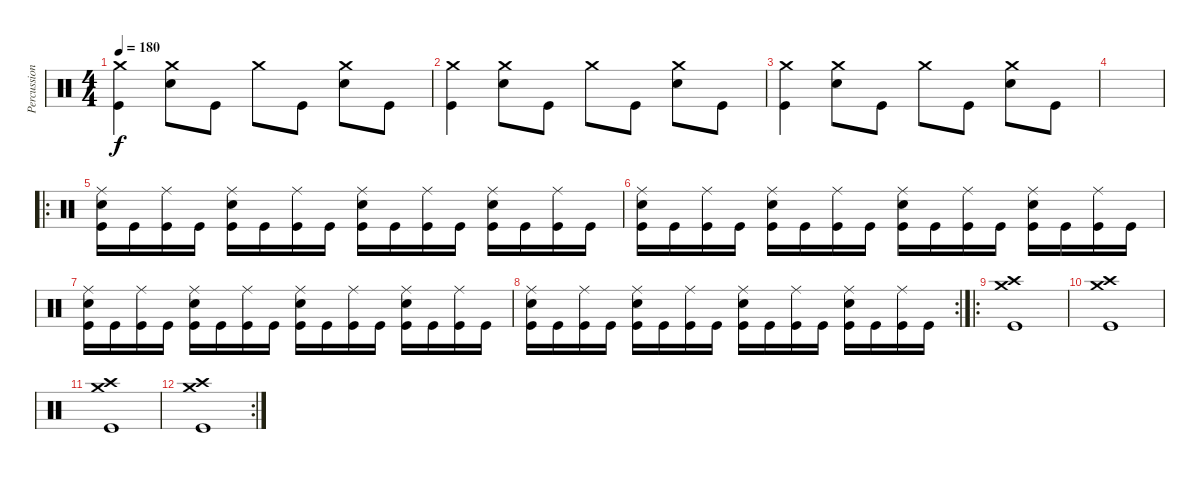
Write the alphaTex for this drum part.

\track ("Percussion" "Percussion") {instrument percussion}
\staff {score}
\articulation defaults
\ts (4 4)
\tempo 180
\clef neutral
\ks c
("Crash medium (hit)" "Kick (hit)").4{dy f} ("Crash medium (hit)" "Snare (hit) 2").8 "Kick (hit)".8 "Crash medium (hit)".8 "Kick (hit)".8 ("Crash medium (hit)" "Snare (hit) 2").8 "Kick (hit)".8 |
("Crash medium (hit)" "Kick (hit)").4 ("Crash medium (hit)" "Snare (hit) 2").8 "Kick (hit)".8 "Crash medium (hit)".8 "Kick (hit)".8 ("Crash medium (hit)" "Snare (hit) 2").8 "Kick (hit)".8 |
("Crash medium (hit)" "Kick (hit)").4 ("Crash medium (hit)" "Snare (hit) 2").8 "Kick (hit)".8 "Crash medium (hit)".8 "Kick (hit)".8 ("Crash medium (hit)" "Snare (hit) 2").8 "Kick (hit)".8 |
|
\ro
("Ride (middle)" "Snare (hit) 2" "Kick (hit)").16 "Kick (hit)".16 ("Ride (middle)" "Kick (hit)").16 "Kick (hit)".16 ("Ride (middle)" "Snare (hit) 2" "Kick (hit)").16 "Kick (hit)".16 ("Ride (middle)" "Kick (hit)").16 "Kick (hit)".16 ("Ride (middle)" "Snare (hit) 2" "Kick (hit)").16 "Kick (hit)".16 ("Ride (middle)" "Kick (hit)").16 "Kick (hit)".16 ("Ride (middle)" "Snare (hit) 2" "Kick (hit)").16 "Kick (hit)".16 ("Ride (middle)" "Kick (hit)").16 "Kick (hit)".16 |
("Ride (middle)" "Snare (hit) 2" "Kick (hit)").16 "Kick (hit)".16 ("Ride (middle)" "Kick (hit)").16 "Kick (hit)".16 ("Ride (middle)" "Snare (hit) 2" "Kick (hit)").16 "Kick (hit)".16 ("Ride (middle)" "Kick (hit)").16 "Kick (hit)".16 ("Ride (middle)" "Snare (hit) 2" "Kick (hit)").16 "Kick (hit)".16 ("Ride (middle)" "Kick (hit)").16 "Kick (hit)".16 ("Ride (middle)" "Snare (hit) 2" "Kick (hit)").16 "Kick (hit)".16 ("Ride (middle)" "Kick (hit)").16 "Kick (hit)".16 |
("Ride (middle)" "Snare (hit) 2" "Kick (hit)").16 "Kick (hit)".16 ("Ride (middle)" "Kick (hit)").16 "Kick (hit)".16 ("Ride (middle)" "Snare (hit) 2" "Kick (hit)").16 "Kick (hit)".16 ("Ride (middle)" "Kick (hit)").16 "Kick (hit)".16 ("Ride (middle)" "Snare (hit) 2" "Kick (hit)").16 "Kick (hit)".16 ("Ride (middle)" "Kick (hit)").16 "Kick (hit)".16 ("Ride (middle)" "Snare (hit) 2" "Kick (hit)").16 "Kick (hit)".16 ("Ride (middle)" "Kick (hit)").16 "Kick (hit)".16 |
\rc 2
("Ride (middle)" "Snare (hit) 2" "Kick (hit)").16 "Kick (hit)".16 ("Ride (middle)" "Kick (hit)").16 "Kick (hit)".16 ("Ride (middle)" "Snare (hit) 2" "Kick (hit)").16 "Kick (hit)".16 ("Ride (middle)" "Kick (hit)").16 "Kick (hit)".16 ("Ride (middle)" "Snare (hit) 2" "Kick (hit)").16 "Kick (hit)".16 ("Ride (middle)" "Kick (hit)").16 "Kick (hit)".16 ("Ride (middle)" "Snare (hit) 2" "Kick (hit)").16 "Kick (hit)".16 ("Ride (middle)" "Kick (hit)").16 "Kick (hit)".16 |
\ro
("Crash medium (hit)" "Crash high (hit)" "Kick (hit)").1 |
("Crash medium (hit)" "Crash high (hit)" "Kick (hit)").1 |
("Crash medium (hit)" "Crash high (hit)" "Kick (hit)").1 |
\rc 2
("Crash medium (hit)" "Crash high (hit)" "Kick (hit)").1
